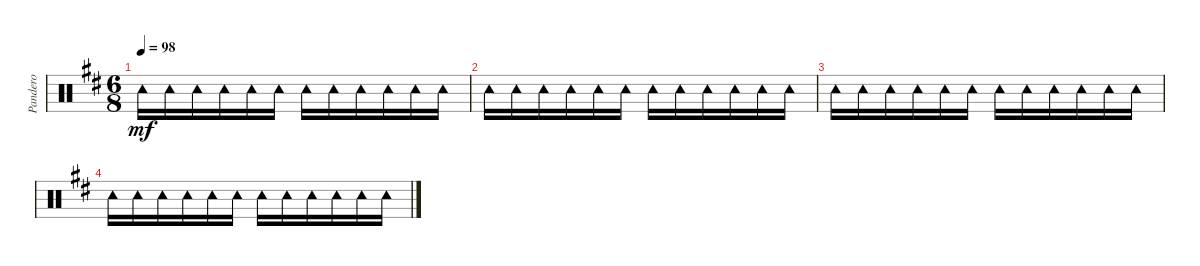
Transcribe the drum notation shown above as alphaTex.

\track ("Pandero" "Pandero") {instrument percussion}
\staff {score}
\articulation defaults
\ts (6 8)
\tempo 98
\clef neutral
\ks d "Tambourine (hit)".16{dy mf} "Tambourine (hit)".16 "Tambourine (hit)".16 "Tambourine (hit)".16 "Tambourine (hit)".16 "Tambourine (hit)".16 "Tambourine (hit)".16 "Tambourine (hit)".16 "Tambourine (hit)".16 "Tambourine (hit)".16 "Tambourine (hit)".16 "Tambourine (hit)".16
|
"Tambourine (hit)".16 "Tambourine (hit)".16 "Tambourine (hit)".16 "Tambourine (hit)".16 "Tambourine (hit)".16 "Tambourine (hit)".16 "Tambourine (hit)".16 "Tambourine (hit)".16 "Tambourine (hit)".16 "Tambourine (hit)".16 "Tambourine (hit)".16 "Tambourine (hit)".16 |
"Tambourine (hit)".16 "Tambourine (hit)".16 "Tambourine (hit)".16 "Tambourine (hit)".16 "Tambourine (hit)".16 "Tambourine (hit)".16 "Tambourine (hit)".16 "Tambourine (hit)".16 "Tambourine (hit)".16 "Tambourine (hit)".16 "Tambourine (hit)".16 "Tambourine (hit)".16 |
"Tambourine (hit)".16 "Tambourine (hit)".16 "Tambourine (hit)".16 "Tambourine (hit)".16 "Tambourine (hit)".16 "Tambourine (hit)".16 "Tambourine (hit)".16 "Tambourine (hit)".16 "Tambourine (hit)".16 "Tambourine (hit)".16 "Tambourine (hit)".16 "Tambourine (hit)".16
